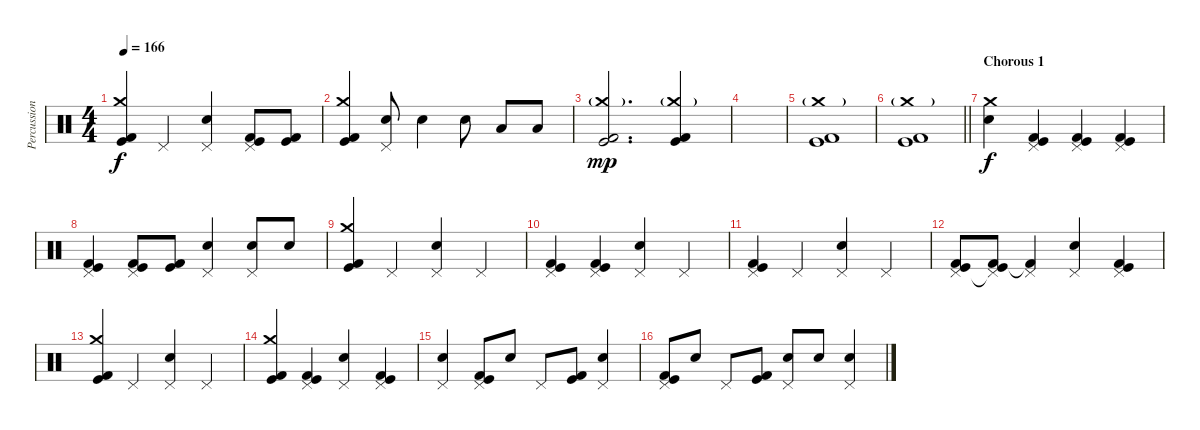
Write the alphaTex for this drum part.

\track ("Percussion" "Percussion") {instrument percussion}
\staff {score}
\articulation defaults
\ts (4 4)
\tempo 166
\clef neutral
\ks c
("Kick (hit) 2" "Crash medium (hit)" "Kick (hit)").4{dy f} "Pedal Hi-Hat (hit)".4 ("Electric Snare (hit)" "Pedal Hi-Hat (hit)").4 ("Kick (hit) 2" "Pedal Hi-Hat (hit)" "Kick (hit)").8 ("Kick (hit) 2" "Kick (hit)").8 |
("Kick (hit) 2" "Crash medium (hit)" "Kick (hit)").4 ("Electric Snare (hit)" "Pedal Hi-Hat (hit)").8 "Electric Snare (hit)".4 "Electric Snare (hit)".8 "Low Tom (hit)".8 "Low Tom (hit)".8 |
("Kick (hit) 2" "Crash medium (hit)"{g} "Kick (hit)").2{d dy mp} ("Kick (hit) 2" "Crash medium (hit)"{g} "Kick (hit)").4 |
|
("Kick (hit) 2" "Crash medium (hit)"{g} "Kick (hit)").1 |
\barLineRight lightlight
("Kick (hit) 2" "Crash medium (hit)"{g} "Kick (hit)").1 |
\section ("" "Chorous 1")
("Electric Snare (hit)" "Crash medium (hit)").4{dy f} ("Kick (hit) 2" "Pedal Hi-Hat (hit)" "Kick (hit)").4 ("Kick (hit) 2" "Pedal Hi-Hat (hit)" "Kick (hit)").4 ("Kick (hit) 2" "Pedal Hi-Hat (hit)" "Kick (hit)").4 |
("Kick (hit) 2" "Pedal Hi-Hat (hit)" "Kick (hit)").4 ("Kick (hit) 2" "Pedal Hi-Hat (hit)" "Kick (hit)").8 ("Kick (hit) 2" "Kick (hit)").8 ("Electric Snare (hit)" "Pedal Hi-Hat (hit)").4 ("Electric Snare (hit)" "Pedal Hi-Hat (hit)").8 "Electric Snare (hit)".8 |
("Kick (hit) 2" "Crash medium (hit)" "Kick (hit)").4 "Pedal Hi-Hat (hit)".4 ("Electric Snare (hit)" "Pedal Hi-Hat (hit)").4 "Pedal Hi-Hat (hit)".4 |
("Kick (hit) 2" "Pedal Hi-Hat (hit)" "Kick (hit)").4 ("Kick (hit) 2" "Pedal Hi-Hat (hit)" "Kick (hit)").4 ("Electric Snare (hit)" "Pedal Hi-Hat (hit)").4 "Pedal Hi-Hat (hit)".4 |
("Kick (hit) 2" "Pedal Hi-Hat (hit)" "Kick (hit)").4 "Pedal Hi-Hat (hit)".4 ("Electric Snare (hit)" "Pedal Hi-Hat (hit)").4 "Pedal Hi-Hat (hit)".4 |
("Kick (hit) 2" "Pedal Hi-Hat (hit)" "Kick (hit)").8 ("Kick (hit) 2" "Pedal Hi-Hat (hit)"{t} "Kick (hit)").8 ("Kick (hit) 2"{t} "Pedal Hi-Hat (hit)").4 ("Electric Snare (hit)" "Pedal Hi-Hat (hit)").4 ("Kick (hit) 2" "Pedal Hi-Hat (hit)" "Kick (hit)").4 |
("Kick (hit) 2" "Crash medium (hit)" "Kick (hit)").4 "Pedal Hi-Hat (hit)".4 ("Electric Snare (hit)" "Pedal Hi-Hat (hit)").4 "Pedal Hi-Hat (hit)".4 |
("Kick (hit) 2" "Crash medium (hit)" "Kick (hit)").4 ("Kick (hit) 2" "Pedal Hi-Hat (hit)" "Kick (hit)").4 ("Electric Snare (hit)" "Pedal Hi-Hat (hit)").4 ("Kick (hit) 2" "Pedal Hi-Hat (hit)" "Kick (hit)").4 |
("Electric Snare (hit)" "Pedal Hi-Hat (hit)").4 ("Kick (hit) 2" "Pedal Hi-Hat (hit)" "Kick (hit)").8 "Electric Snare (hit)".8 "Pedal Hi-Hat (hit)".8 ("Kick (hit) 2" "Kick (hit)").8 ("Electric Snare (hit)" "Pedal Hi-Hat (hit)").4 |
("Kick (hit) 2" "Pedal Hi-Hat (hit)" "Kick (hit)").8 "Electric Snare (hit)".8 "Pedal Hi-Hat (hit)".8 ("Kick (hit) 2" "Kick (hit)").8 ("Electric Snare (hit)" "Pedal Hi-Hat (hit)").8 "Electric Snare (hit)".8 ("Electric Snare (hit)" "Pedal Hi-Hat (hit)").4
